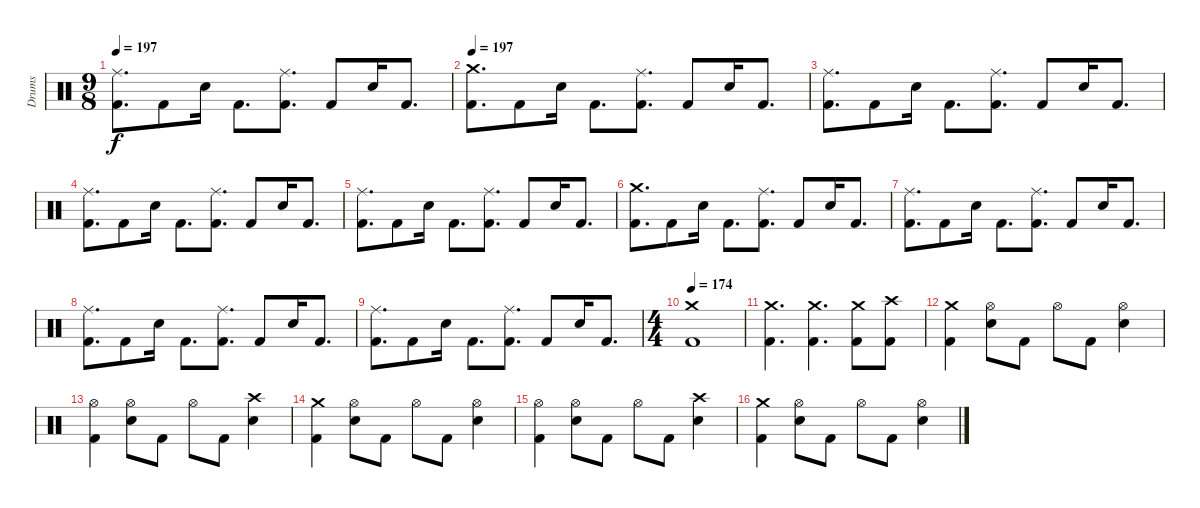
\track ("Drums" "Drums") {instrument percussion}
\staff {score}
\articulation defaults
\ts (9 8)
\tempo 197
\clef neutral
\ks c
("Ride (middle)" "Kick (hit) 2").8{d dy f} "Kick (hit) 2".8 "Snare (hit) 2".16 "Kick (hit) 2".8{d} ("Ride (middle)" "Kick (hit) 2").8{d} "Kick (hit) 2".8 "Snare (hit) 2".16 "Kick (hit) 2".8{d} |
\tempo 197
("Crash medium (hit)" "Kick (hit) 2").8{d} "Kick (hit) 2".8 "Snare (hit) 2".16 "Kick (hit) 2".8{d} ("Ride (middle)" "Kick (hit) 2").8{d} "Kick (hit) 2".8 "Snare (hit) 2".16 "Kick (hit) 2".8{d} |
("Ride (middle)" "Kick (hit) 2").8{d} "Kick (hit) 2".8 "Snare (hit) 2".16 "Kick (hit) 2".8{d} ("Ride (middle)" "Kick (hit) 2").8{d} "Kick (hit) 2".8 "Snare (hit) 2".16 "Kick (hit) 2".8{d} |
("Ride (middle)" "Kick (hit) 2").8{d} "Kick (hit) 2".8 "Snare (hit) 2".16 "Kick (hit) 2".8{d} ("Ride (middle)" "Kick (hit) 2").8{d} "Kick (hit) 2".8 "Snare (hit) 2".16 "Kick (hit) 2".8{d} |
("Ride (middle)" "Kick (hit) 2").8{d} "Kick (hit) 2".8 "Snare (hit) 2".16 "Kick (hit) 2".8{d} ("Ride (middle)" "Kick (hit) 2").8{d} "Kick (hit) 2".8 "Snare (hit) 2".16 "Kick (hit) 2".8{d} |
("Crash medium (hit)" "Kick (hit) 2").8{d} "Kick (hit) 2".8 "Snare (hit) 2".16 "Kick (hit) 2".8{d} ("Ride (middle)" "Kick (hit) 2").8{d} "Kick (hit) 2".8 "Snare (hit) 2".16 "Kick (hit) 2".8{d} |
("Ride (middle)" "Kick (hit) 2").8{d} "Kick (hit) 2".8 "Snare (hit) 2".16 "Kick (hit) 2".8{d} ("Ride (middle)" "Kick (hit) 2").8{d} "Kick (hit) 2".8 "Snare (hit) 2".16 "Kick (hit) 2".8{d} |
("Ride (middle)" "Kick (hit) 2").8{d} "Kick (hit) 2".8 "Snare (hit) 2".16 "Kick (hit) 2".8{d} ("Ride (middle)" "Kick (hit) 2").8{d} "Kick (hit) 2".8 "Snare (hit) 2".16 "Kick (hit) 2".8{d} |
("Ride (middle)" "Kick (hit) 2").8{d} "Kick (hit) 2".8 "Snare (hit) 2".16 "Kick (hit) 2".8{d} ("Ride (middle)" "Kick (hit) 2").8{d} "Kick (hit) 2".8 "Snare (hit) 2".16 "Kick (hit) 2".8{d} |
\ts (4 4)
\tempo 174
("Crash medium (hit)" "Kick (hit) 2").1 |
("Crash medium (hit)" "Kick (hit) 2").4{d} ("Crash medium (hit)" "Kick (hit) 2").4{d} ("Crash medium (hit)" "Kick (hit) 2").8 ("Crash high (hit)" "Kick (hit) 2").8 |
("Crash medium (hit)" "Kick (hit) 2").4 ("Hi-Hat (open)" "Snare (hit) 2").8 "Kick (hit) 2".8 "Hi-Hat (open)".8 "Kick (hit) 2".8 ("Hi-Hat (open)" "Snare (hit) 2").4 |
("Hi-Hat (open)" "Kick (hit) 2").4 ("Hi-Hat (open)" "Snare (hit) 2").8 "Kick (hit) 2".8 "Hi-Hat (open)".8 "Kick (hit) 2".8 ("Crash high (hit)" "Snare (hit) 2").4 |
("Crash medium (hit)" "Kick (hit) 2").4 ("Hi-Hat (open)" "Snare (hit) 2").8 "Kick (hit) 2".8 "Hi-Hat (open)".8 "Kick (hit) 2".8 ("Hi-Hat (open)" "Snare (hit) 2").4 |
("Hi-Hat (open)" "Kick (hit) 2").4 ("Hi-Hat (open)" "Snare (hit) 2").8 "Kick (hit) 2".8 "Hi-Hat (open)".8 "Kick (hit) 2".8 ("Crash high (hit)" "Snare (hit) 2").4 |
("Crash medium (hit)" "Kick (hit) 2").4 ("Hi-Hat (open)" "Snare (hit) 2").8 "Kick (hit) 2".8 "Hi-Hat (open)".8 "Kick (hit) 2".8 ("Hi-Hat (open)" "Snare (hit) 2").4
